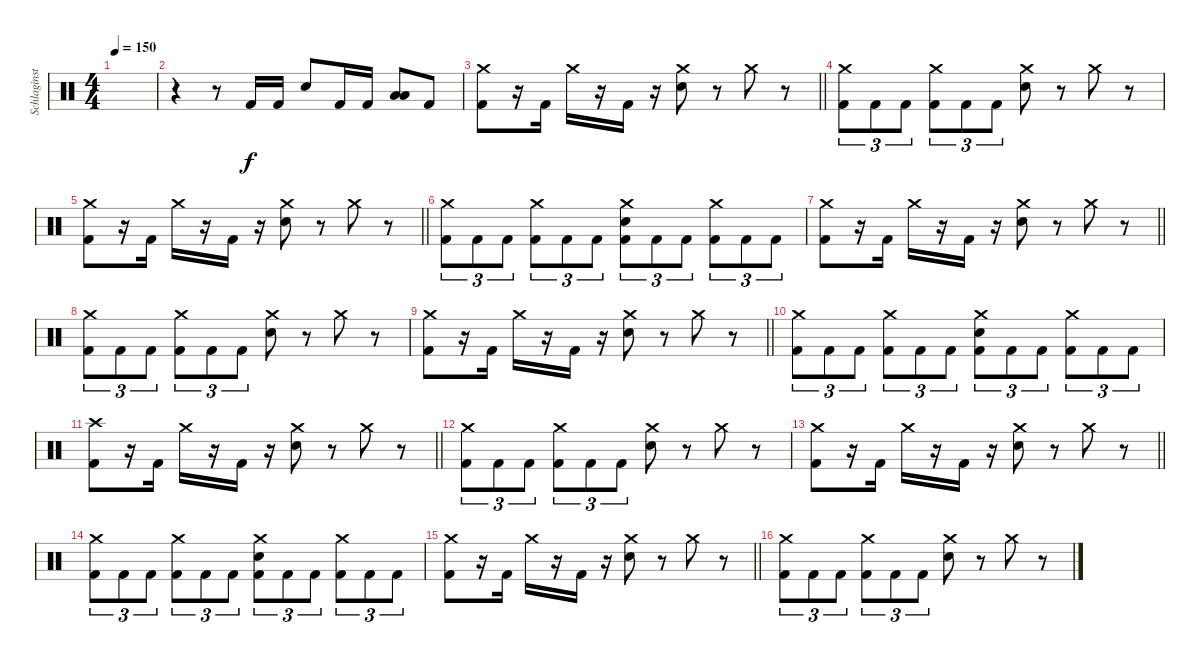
\track ("Schlaginstrumente - Auswahl" "Schlaginst") {instrument percussion}
\staff {score}
\articulation defaults
\ts (4 4)
\tempo 150
\clef neutral
\ks c
|
r.4 r.8 "Kick (hit) 2".16 "Kick (hit) 2".16 "Electric Snare (hit)".8 "Kick (hit) 2".16 "Kick (hit) 2".16 ("Low Tom (hit)" "Low Floor Tom (hit)").8 "Kick (hit) 2".8 |
\barLineRight lightlight
("Crash medium (hit)" "Kick (hit) 2").8 r.16 "Kick (hit) 2".16 "Crash medium (hit)".16 r.16 "Kick (hit) 2".16 r.16 ("Crash medium (hit)" "Electric Snare (hit)").8 r.8 "Crash medium (hit)".8 r.8 |
("Crash medium (hit)" "Kick (hit) 2").8{tu (3 2)} "Kick (hit) 2".8{tu (3 2)} "Kick (hit) 2".8{tu (3 2)} ("Crash medium (hit)" "Kick (hit) 2").8{tu (3 2)} "Kick (hit) 2".8{tu (3 2)} "Kick (hit) 2".8{tu (3 2)} ("Crash medium (hit)" "Electric Snare (hit)").8 r.8 "Crash medium (hit)".8 r.8 |
\barLineRight lightlight
("Crash medium (hit)" "Kick (hit) 2").8 r.16 "Kick (hit) 2".16 "Crash medium (hit)".16 r.16 "Kick (hit) 2".16 r.16 ("Crash medium (hit)" "Electric Snare (hit)").8 r.8 "Crash medium (hit)".8 r.8 |
("Crash medium (hit)" "Kick (hit) 2").8{tu (3 2)} "Kick (hit) 2".8{tu (3 2)} "Kick (hit) 2".8{tu (3 2)} ("Crash medium (hit)" "Kick (hit) 2").8{tu (3 2)} "Kick (hit) 2".8{tu (3 2)} "Kick (hit) 2".8{tu (3 2)} ("Crash medium (hit)" "Electric Snare (hit)" "Kick (hit) 2").8{tu (3 2)} "Kick (hit) 2".8{tu (3 2)} "Kick (hit) 2".8{tu (3 2)} ("Crash medium (hit)" "Kick (hit) 2").8{tu (3 2)} "Kick (hit) 2".8{tu (3 2)} "Kick (hit) 2".8{tu (3 2)} |
\barLineRight lightlight
("Crash medium (hit)" "Kick (hit) 2").8 r.16 "Kick (hit) 2".16 "Crash medium (hit)".16 r.16 "Kick (hit) 2".16 r.16 ("Crash medium (hit)" "Electric Snare (hit)").8 r.8 "Crash medium (hit)".8 r.8 |
("Crash medium (hit)" "Kick (hit) 2").8{tu (3 2)} "Kick (hit) 2".8{tu (3 2)} "Kick (hit) 2".8{tu (3 2)} ("Crash medium (hit)" "Kick (hit) 2").8{tu (3 2)} "Kick (hit) 2".8{tu (3 2)} "Kick (hit) 2".8{tu (3 2)} ("Crash medium (hit)" "Electric Snare (hit)").8 r.8 "Crash medium (hit)".8 r.8 |
\barLineRight lightlight
("Crash medium (hit)" "Kick (hit) 2").8 r.16 "Kick (hit) 2".16 "Crash medium (hit)".16 r.16 "Kick (hit) 2".16 r.16 ("Crash medium (hit)" "Electric Snare (hit)").8 r.8 "Crash medium (hit)".8 r.8 |
("Crash medium (hit)" "Kick (hit) 2").8{tu (3 2)} "Kick (hit) 2".8{tu (3 2)} "Kick (hit) 2".8{tu (3 2)} ("Crash medium (hit)" "Kick (hit) 2").8{tu (3 2)} "Kick (hit) 2".8{tu (3 2)} "Kick (hit) 2".8{tu (3 2)} ("Crash medium (hit)" "Electric Snare (hit)" "Kick (hit) 2").8{tu (3 2)} "Kick (hit) 2".8{tu (3 2)} "Kick (hit) 2".8{tu (3 2)} ("Crash medium (hit)" "Kick (hit) 2").8{tu (3 2)} "Kick (hit) 2".8{tu (3 2)} "Kick (hit) 2".8{tu (3 2)} |
\barLineRight lightlight
("Crash high (hit)" "Kick (hit) 2").8 r.16 "Kick (hit) 2".16 "Crash medium (hit)".16 r.16 "Kick (hit) 2".16 r.16 ("Crash medium (hit)" "Electric Snare (hit)").8 r.8 "Crash medium (hit)".8 r.8 |
("Crash medium (hit)" "Kick (hit) 2").8{tu (3 2)} "Kick (hit) 2".8{tu (3 2)} "Kick (hit) 2".8{tu (3 2)} ("Crash medium (hit)" "Kick (hit) 2").8{tu (3 2)} "Kick (hit) 2".8{tu (3 2)} "Kick (hit) 2".8{tu (3 2)} ("Crash medium (hit)" "Electric Snare (hit)").8 r.8 "Crash medium (hit)".8 r.8 |
\barLineRight lightlight
("Crash medium (hit)" "Kick (hit) 2").8 r.16 "Kick (hit) 2".16 "Crash medium (hit)".16 r.16 "Kick (hit) 2".16 r.16 ("Crash medium (hit)" "Electric Snare (hit)").8 r.8 "Crash medium (hit)".8 r.8 |
("Crash medium (hit)" "Kick (hit) 2").8{tu (3 2)} "Kick (hit) 2".8{tu (3 2)} "Kick (hit) 2".8{tu (3 2)} ("Crash medium (hit)" "Kick (hit) 2").8{tu (3 2)} "Kick (hit) 2".8{tu (3 2)} "Kick (hit) 2".8{tu (3 2)} ("Crash medium (hit)" "Electric Snare (hit)" "Kick (hit) 2").8{tu (3 2)} "Kick (hit) 2".8{tu (3 2)} "Kick (hit) 2".8{tu (3 2)} ("Crash medium (hit)" "Kick (hit) 2").8{tu (3 2)} "Kick (hit) 2".8{tu (3 2)} "Kick (hit) 2".8{tu (3 2)} |
\barLineRight lightlight
("Crash medium (hit)" "Kick (hit) 2").8 r.16 "Kick (hit) 2".16 "Crash medium (hit)".16 r.16 "Kick (hit) 2".16 r.16 ("Crash medium (hit)" "Electric Snare (hit)").8 r.8 "Crash medium (hit)".8 r.8 |
("Crash medium (hit)" "Kick (hit) 2").8{tu (3 2)} "Kick (hit) 2".8{tu (3 2)} "Kick (hit) 2".8{tu (3 2)} ("Crash medium (hit)" "Kick (hit) 2").8{tu (3 2)} "Kick (hit) 2".8{tu (3 2)} "Kick (hit) 2".8{tu (3 2)} ("Crash medium (hit)" "Electric Snare (hit)").8 r.8 "Crash medium (hit)".8 r.8
